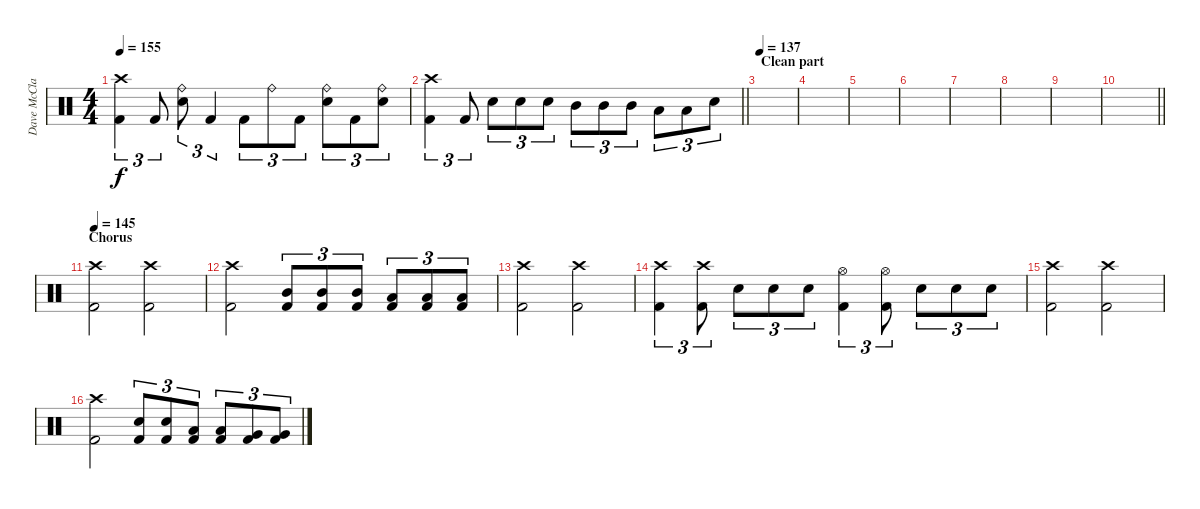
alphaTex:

\track ("Dave McClain" "Dave McCla") {instrument percussion}
\staff {score}
\articulation defaults
\ts (4 4)
\tempo 155
\clef neutral
\ks c
("Crash high (hit)" "Kick (hit) 2").4{tu (3 2) dy f} "Kick (hit) 2".8{tu (3 2)} ("Ride (bell)" "Snare (hit) 2").8{tu (3 2)} "Kick (hit) 2".4{tu (3 2)} "Kick (hit) 2".8{tu (3 2)} "Ride (bell)".8{tu (3 2)} "Kick (hit) 2".8{tu (3 2)} ("Ride (bell)" "Snare (hit) 2").8{tu (3 2)} "Kick (hit) 2".8{tu (3 2)} ("Ride (bell)" "Snare (hit) 2").8{tu (3 2)} |
\barLineRight lightlight
("Crash high (hit)" "Kick (hit) 2").4{tu (3 2)} "Kick (hit) 2".8{tu (3 2)} "Snare (hit) 2".8{tu (3 2)} "Snare (hit) 2".8{tu (3 2)} "Snare (hit) 2".8{tu (3 2)} "Mid Tom (hit)".8{tu (3 2)} "Mid Tom (hit)".8{tu (3 2)} "Mid Tom (hit)".8{tu (3 2)} "Low Tom (hit)".8{tu (3 2)} "Low Tom (hit)".8{tu (3 2)} "Snare (hit) 2".8{tu (3 2)} |
\section ("" "Clean part")
\tempo 137
|
|
|
|
|
|
|
\barLineRight lightlight
|
\section ("" "Chorus")
\tempo 145
("Crash high (hit)" "Kick (hit) 2").2 ("Crash high (hit)" "Kick (hit) 2").2 |
("Crash high (hit)" "Kick (hit) 2").2 ("Mid Tom (hit)" "Kick (hit) 2").8{tu (3 2)} ("Mid Tom (hit)" "Kick (hit) 2").8{tu (3 2)} ("Mid Tom (hit)" "Kick (hit) 2").8{tu (3 2)} ("Low Tom (hit)" "Kick (hit) 2").8{tu (3 2)} ("Low Tom (hit)" "Kick (hit) 2").8{tu (3 2)} ("Low Tom (hit)" "Kick (hit) 2").8{tu (3 2)} |
("Crash high (hit)" "Kick (hit) 2").2 ("Crash high (hit)" "Kick (hit) 2").2 |
("Crash high (hit)" "Kick (hit) 2").4{tu (3 2)} ("Crash high (hit)" "Kick (hit) 2").8{tu (3 2)} "Snare (hit) 2".8{tu (3 2)} "Snare (hit) 2".8{tu (3 2)} "Snare (hit) 2".8{tu (3 2)} ("Hi-Hat (open)" "Kick (hit) 2").4{tu (3 2)} ("Hi-Hat (open)" "Kick (hit) 2").8{tu (3 2)} "Snare (hit) 2".8{tu (3 2)} "Snare (hit) 2".8{tu (3 2)} "Snare (hit) 2".8{tu (3 2)} |
("Crash high (hit)" "Kick (hit) 2").2 ("Crash high (hit)" "Kick (hit) 2").2 |
("Crash high (hit)" "Kick (hit) 2").2 ("Snare (hit) 2" "Kick (hit) 2").8{tu (3 2)} ("Snare (hit) 2" "Kick (hit) 2").8{tu (3 2)} ("Low Tom (hit)" "Kick (hit) 2").8{tu (3 2)} ("Low Tom (hit)" "Kick (hit) 2").8{tu (3 2)} ("Very Low Tom (hit)" "Kick (hit) 2").8{tu (3 2)} ("Very Low Tom (hit)" "Kick (hit) 2").8{tu (3 2)}
